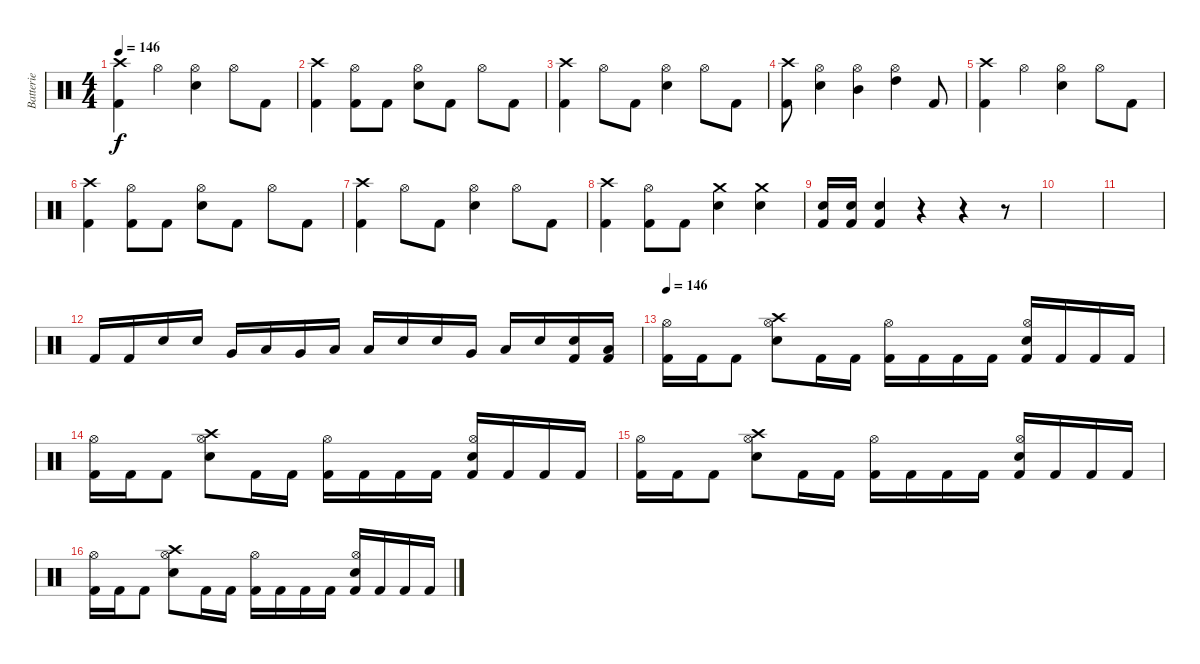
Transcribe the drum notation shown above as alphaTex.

\track ("Batterie" "Batterie") {instrument percussion}
\staff {score}
\articulation defaults
\ts (4 4)
\tempo 146
\clef neutral
\ks c
("Crash high (hit)" "Kick (hit) 2").4{dy f} "Hi-Hat (open)".4 ("Hi-Hat (open)" "Electric Snare (hit)").4 "Hi-Hat (open)".8 "Kick (hit) 2".8 |
("Crash high (hit)" "Kick (hit) 2").4 ("Hi-Hat (open)" "Kick (hit) 2").8 "Kick (hit) 2".8 ("Hi-Hat (open)" "Electric Snare (hit)").8 "Kick (hit) 2".8 "Hi-Hat (open)".8 "Kick (hit) 2".8 |
("Crash high (hit)" "Kick (hit) 2").4 "Hi-Hat (open)".8 "Kick (hit) 2".8 ("Hi-Hat (open)" "Electric Snare (hit)").4 "Hi-Hat (open)".8 "Kick (hit) 2".8 |
("Crash high (hit)" "Kick (hit) 2").8 ("Hi-Hat (open)" "Electric Snare (hit)").4 ("Hi-Hat (open)" "Mid Tom (hit)").4 ("Hi-Hat (open)" "High Tom (hit)").4 "Kick (hit) 2".8 |
("Crash high (hit)" "Kick (hit) 2").4 "Hi-Hat (open)".4 ("Hi-Hat (open)" "Electric Snare (hit)").4 "Hi-Hat (open)".8 "Kick (hit) 2".8 |
("Crash high (hit)" "Kick (hit) 2").4 ("Hi-Hat (open)" "Kick (hit) 2").8 "Kick (hit) 2".8 ("Hi-Hat (open)" "Electric Snare (hit)").8 "Kick (hit) 2".8 "Hi-Hat (open)".8 "Kick (hit) 2".8 |
("Crash high (hit)" "Kick (hit) 2").4 "Hi-Hat (open)".8 "Kick (hit) 2".8 ("Hi-Hat (open)" "Electric Snare (hit)").4 "Hi-Hat (open)".8 "Kick (hit) 2".8 |
("Crash high (hit)" "Kick (hit) 2").4 ("Hi-Hat (open)" "Kick (hit) 2").8 "Kick (hit) 2".8 ("Crash medium (hit)" "Electric Snare (hit)").4 ("Crash medium (hit)" "Electric Snare (hit)").4 |
("Electric Snare (hit)" "Kick (hit) 2").16 ("Electric Snare (hit)" "Kick (hit) 2").16 ("Electric Snare (hit)" "Kick (hit) 2").4 r.4 r.4 r.8 |
|
|
"Kick (hit) 2".16 "Kick (hit) 2".16 "Electric Snare (hit)".16 "Electric Snare (hit)".16 "Very Low Tom (hit)".16 "Low Tom (hit)".16 "Very Low Tom (hit)".16 "Low Tom (hit)".16 "Low Tom (hit)".16 "Electric Snare (hit)".16 "Electric Snare (hit)".16 "Very Low Tom (hit)".16 "Low Tom (hit)".16 "Electric Snare (hit)".16 ("Electric Snare (hit)" "Kick (hit) 2").16 ("Low Tom (hit)" "Kick (hit) 2").16 |
\tempo 146
("Hi-Hat (open)" "Kick (hit) 2").16 "Kick (hit) 2".16 "Kick (hit) 2".8 ("Crash high (hit)" "Hi-Hat (open)" "Electric Snare (hit)").8 "Kick (hit) 2".16 "Kick (hit) 2".16 ("Hi-Hat (open)" "Kick (hit) 2").16 "Kick (hit) 2".16 "Kick (hit) 2".16 "Kick (hit) 2".16 ("Electric Snare (hit)" "Hi-Hat (open)" "Kick (hit) 2").16 "Kick (hit) 2".16 "Kick (hit) 2".16 "Kick (hit) 2".16 |
("Hi-Hat (open)" "Kick (hit) 2").16 "Kick (hit) 2".16 "Kick (hit) 2".8 ("Crash high (hit)" "Hi-Hat (open)" "Electric Snare (hit)").8 "Kick (hit) 2".16 "Kick (hit) 2".16 ("Hi-Hat (open)" "Kick (hit) 2").16 "Kick (hit) 2".16 "Kick (hit) 2".16 "Kick (hit) 2".16 ("Electric Snare (hit)" "Hi-Hat (open)" "Kick (hit) 2").16 "Kick (hit) 2".16 "Kick (hit) 2".16 "Kick (hit) 2".16 |
("Hi-Hat (open)" "Kick (hit) 2").16 "Kick (hit) 2".16 "Kick (hit) 2".8 ("Crash high (hit)" "Hi-Hat (open)" "Electric Snare (hit)").8 "Kick (hit) 2".16 "Kick (hit) 2".16 ("Hi-Hat (open)" "Kick (hit) 2").16 "Kick (hit) 2".16 "Kick (hit) 2".16 "Kick (hit) 2".16 ("Electric Snare (hit)" "Hi-Hat (open)" "Kick (hit) 2").16 "Kick (hit) 2".16 "Kick (hit) 2".16 "Kick (hit) 2".16 |
("Hi-Hat (open)" "Kick (hit) 2").16 "Kick (hit) 2".16 "Kick (hit) 2".8 ("Crash high (hit)" "Hi-Hat (open)" "Electric Snare (hit)").8 "Kick (hit) 2".16 "Kick (hit) 2".16 ("Hi-Hat (open)" "Kick (hit) 2").16 "Kick (hit) 2".16 "Kick (hit) 2".16 "Kick (hit) 2".16 ("Electric Snare (hit)" "Hi-Hat (open)" "Kick (hit) 2").16 "Kick (hit) 2".16 "Kick (hit) 2".16 "Kick (hit) 2".16
